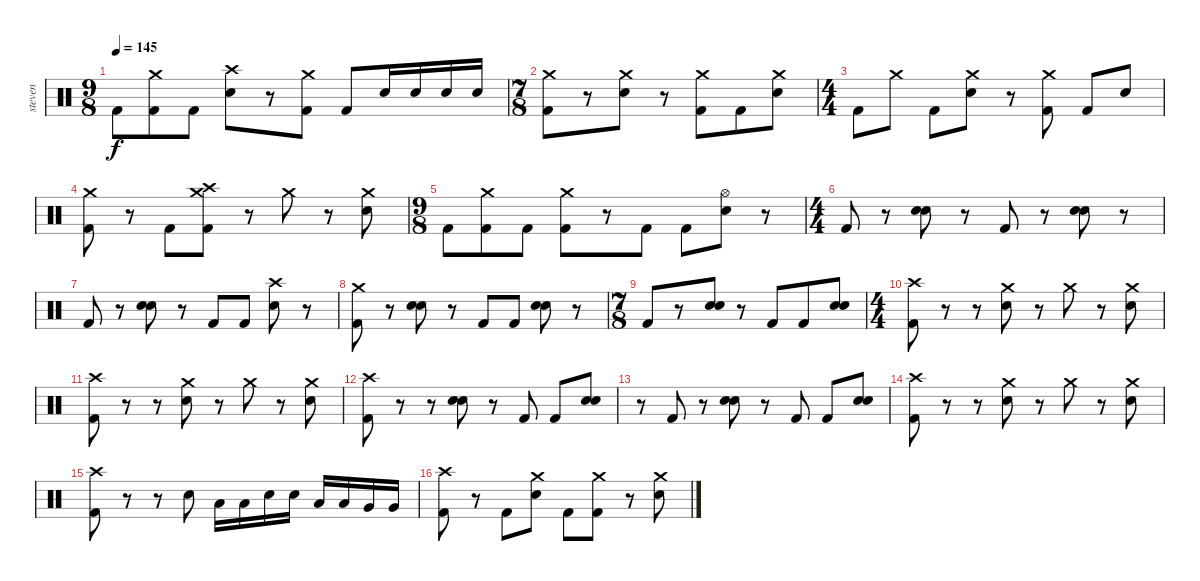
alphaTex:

\track ("steven" "steven") {instrument percussion}
\staff {score}
\articulation defaults
\ts (9 8)
\tempo 145
\clef neutral
\ks c "Kick (hit) 2".8{dy f}
("Crash medium (hit)" "Kick (hit) 2").8 "Kick (hit) 2".8 ("Crash high (hit)" "Electric Snare (hit)").8 r.8 ("Crash medium (hit)" "Kick (hit) 2").8 "Kick (hit) 2".8 "Electric Snare (hit)".16 "Electric Snare (hit)".16 "Electric Snare (hit)".16 "Electric Snare (hit)".16 |
\ts (7 8)
("Crash medium (hit)" "Kick (hit) 2").8 r.8 ("Crash medium (hit)" "Electric Snare (hit)").8 r.8 ("Crash medium (hit)" "Kick (hit) 2").8 "Kick (hit) 2".8 ("Crash medium (hit)" "Electric Snare (hit)").8 |
\ts (4 4)
"Kick (hit) 2".8 "Crash medium (hit)".8 "Kick (hit) 2".8 ("Crash medium (hit)" "Electric Snare (hit)").8 r.8 ("Crash medium (hit)" "Kick (hit) 2").8 "Kick (hit) 2".8 "Electric Snare (hit)".8 |
("Crash medium (hit)" "Kick (hit) 2").8 r.8 "Kick (hit) 2".8 ("Crash medium (hit)" "Crash high (hit)" "Kick (hit) 2").8 r.8 "Crash medium (hit)".8 r.8 ("Crash medium (hit)" "Electric Snare (hit)").8 |
\ts (9 8)
"Kick (hit) 2".8 ("Crash medium (hit)" "Kick (hit) 2").8 "Kick (hit) 2".8 ("Crash medium (hit)" "Kick (hit) 2").8 r.8 "Kick (hit) 2".8 "Kick (hit) 2".8 ("Hi-Hat (open)" "Electric Snare (hit)").8 r.8 |
\ts (4 4)
"Kick (hit) 2".8 r.8 ("Electric Snare (hit)" "Electric Snare (hit)").8 r.8 "Kick (hit) 2".8 r.8 ("Electric Snare (hit)" "Electric Snare (hit)").8 r.8 |
"Kick (hit) 2".8 r.8 ("Electric Snare (hit)" "Electric Snare (hit)").8 r.8 "Kick (hit) 2".8 "Kick (hit) 2".8 ("Crash high (hit)" "Electric Snare (hit)").8 r.8 |
("Crash medium (hit)" "Kick (hit) 2").8 r.8 ("Electric Snare (hit)" "Electric Snare (hit)").8 r.8 "Kick (hit) 2".8 "Kick (hit) 2".8 ("Electric Snare (hit)" "Electric Snare (hit)").8 r.8 |
\ts (7 8)
"Kick (hit) 2".8 r.8 ("Electric Snare (hit)" "Electric Snare (hit)").8 r.8 "Kick (hit) 2".8 "Kick (hit) 2".8 ("Electric Snare (hit)" "Electric Snare (hit)").8 |
\ts (4 4)
("Crash high (hit)" "Kick (hit) 2").8 r.8 r.8 ("Crash medium (hit)" "Electric Snare (hit)").8 r.8 "Crash medium (hit)".8 r.8 ("Crash medium (hit)" "Electric Snare (hit)").8 |
("Crash high (hit)" "Kick (hit) 2").8 r.8 r.8 ("Crash medium (hit)" "Electric Snare (hit)").8 r.8 "Crash medium (hit)".8 r.8 ("Crash medium (hit)" "Electric Snare (hit)").8 |
("Crash high (hit)" "Kick (hit) 2").8 r.8 r.8 ("Electric Snare (hit)" "Electric Snare (hit)").8 r.8 "Kick (hit) 2".8 "Kick (hit) 2".8 ("Electric Snare (hit)" "Electric Snare (hit)").8 |
r.8 "Kick (hit) 2".8 r.8 ("Electric Snare (hit)" "Electric Snare (hit)").8 r.8 "Kick (hit) 2".8 "Kick (hit) 2".8 ("Electric Snare (hit)" "Electric Snare (hit)").8 |
("Crash high (hit)" "Kick (hit) 2").8 r.8 r.8 ("Crash medium (hit)" "Electric Snare (hit)").8 r.8 "Crash medium (hit)".8 r.8 ("Crash medium (hit)" "Electric Snare (hit)").8 |
("Crash high (hit)" "Kick (hit) 2").8 r.8 r.8 "Electric Snare (hit)".8 "Low Tom (hit)".16 "Low Tom (hit)".16 "Electric Snare (hit)".16 "Electric Snare (hit)".16 "Low Tom (hit)".16 "Low Tom (hit)".16 "Very Low Tom (hit)".16 "Very Low Tom (hit)".16 |
("Crash high (hit)" "Kick (hit) 2").8 r.8 "Kick (hit) 2".8 ("Crash medium (hit)" "Electric Snare (hit)").8 "Kick (hit) 2".8 ("Crash medium (hit)" "Kick (hit) 2").8 r.8 ("Crash medium (hit)" "Electric Snare (hit)").8
